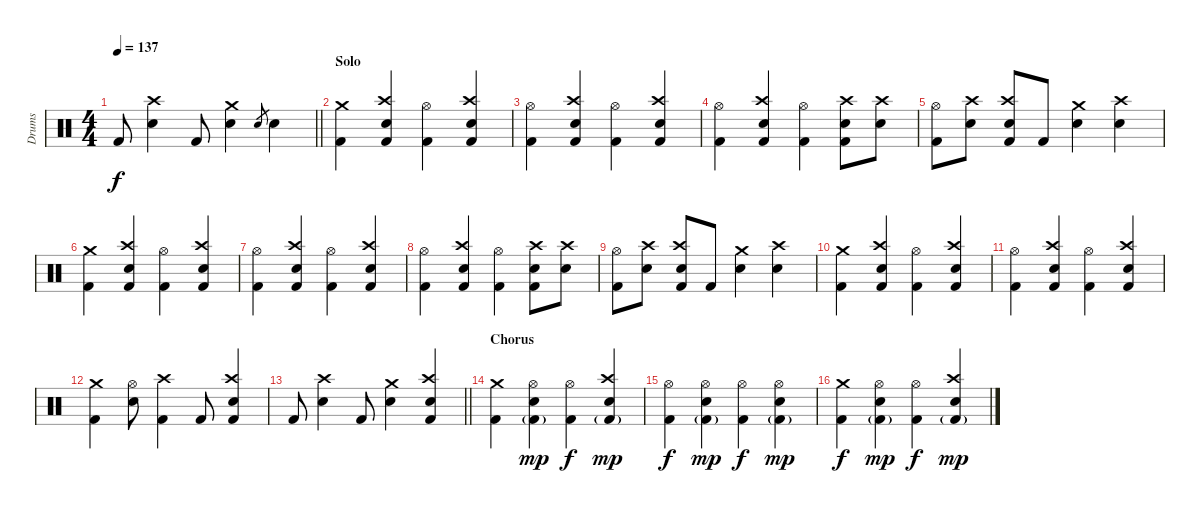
\track ("Drums" "Drums") {instrument percussion}
\staff {score}
\articulation defaults
\ts (4 4)
\tempo 137
\clef neutral
\barLineRight lightlight
\ks c "Kick (hit) 2".8{dy f}
("Crash high (hit)" "Electric Snare (hit)").4 "Kick (hit) 2".8 ("Crash medium (hit)" "Electric Snare (hit)").4 "Electric Snare (hit)".8{gr} "Electric Snare (hit)".4 |
\section ("" "Solo")
("Crash medium (hit)" "Kick (hit) 2").4 ("Crash high (hit)" "Electric Snare (hit)" "Kick (hit) 2").4 ("Hi-Hat (open)" "Kick (hit) 2").4 ("Crash high (hit)" "Electric Snare (hit)" "Kick (hit) 2").4 |
("Hi-Hat (open)" "Kick (hit) 2").4 ("Crash high (hit)" "Electric Snare (hit)" "Kick (hit) 2").4 ("Hi-Hat (open)" "Kick (hit) 2").4 ("Crash high (hit)" "Electric Snare (hit)" "Kick (hit) 2").4 |
("Hi-Hat (open)" "Kick (hit) 2").4 ("Crash high (hit)" "Electric Snare (hit)" "Kick (hit) 2").4 ("Hi-Hat (open)" "Kick (hit) 2").4 ("Crash high (hit)" "Electric Snare (hit)" "Kick (hit) 2").8 ("Crash high (hit)" "Electric Snare (hit)").8 |
("Hi-Hat (open)" "Kick (hit) 2").8 ("Crash high (hit)" "Electric Snare (hit)").8 ("Crash high (hit)" "Electric Snare (hit)" "Kick (hit) 2").8 "Kick (hit) 2".8 ("Crash medium (hit)" "Electric Snare (hit)").4 ("Crash high (hit)" "Electric Snare (hit)").4 |
("Crash medium (hit)" "Kick (hit) 2").4 ("Crash high (hit)" "Electric Snare (hit)" "Kick (hit) 2").4 ("Hi-Hat (open)" "Kick (hit) 2").4 ("Crash high (hit)" "Electric Snare (hit)" "Kick (hit) 2").4 |
("Hi-Hat (open)" "Kick (hit) 2").4 ("Crash high (hit)" "Electric Snare (hit)" "Kick (hit) 2").4 ("Hi-Hat (open)" "Kick (hit) 2").4 ("Crash high (hit)" "Electric Snare (hit)" "Kick (hit) 2").4 |
("Hi-Hat (open)" "Kick (hit) 2").4 ("Crash high (hit)" "Electric Snare (hit)" "Kick (hit) 2").4 ("Hi-Hat (open)" "Kick (hit) 2").4 ("Crash high (hit)" "Electric Snare (hit)" "Kick (hit) 2").8 ("Crash high (hit)" "Electric Snare (hit)").8 |
("Hi-Hat (open)" "Kick (hit) 2").8 ("Crash high (hit)" "Electric Snare (hit)").8 ("Crash high (hit)" "Electric Snare (hit)" "Kick (hit) 2").8 "Kick (hit) 2".8 ("Crash medium (hit)" "Electric Snare (hit)").4 ("Crash high (hit)" "Electric Snare (hit)").4 |
("Crash medium (hit)" "Kick (hit) 2").4 ("Crash high (hit)" "Electric Snare (hit)" "Kick (hit) 2").4 ("Hi-Hat (open)" "Kick (hit) 2").4 ("Crash high (hit)" "Electric Snare (hit)" "Kick (hit) 2").4 |
("Hi-Hat (open)" "Kick (hit) 2").4 ("Crash high (hit)" "Electric Snare (hit)" "Kick (hit) 2").4 ("Hi-Hat (open)" "Kick (hit) 2").4 ("Crash high (hit)" "Electric Snare (hit)" "Kick (hit) 2").4 |
("Crash medium (hit)" "Kick (hit) 2").4 ("Hi-Hat (open)" "Electric Snare (hit)").8 ("Crash high (hit)" "Kick (hit) 2").4 "Kick (hit) 2".8 ("Crash high (hit)" "Electric Snare (hit)" "Kick (hit) 2").4 |
\barLineRight lightlight "Kick (hit) 2".8
("Crash high (hit)" "Electric Snare (hit)").4 "Kick (hit) 2".8 ("Crash medium (hit)" "Electric Snare (hit)").4 ("Crash high (hit)" "Electric Snare (hit)" "Kick (hit) 2").4 |
\section ("" "Chorus")
("Crash medium (hit)" "Kick (hit) 2").4 ("Hi-Hat (open)" "Electric Snare (hit)" "Kick (hit) 2"{g}).4{dy mp} ("Hi-Hat (open)" "Kick (hit) 2").4{dy f} ("Crash high (hit)" "Electric Snare (hit)" "Kick (hit) 2"{g}).4{dy mp} |
("Hi-Hat (open)" "Kick (hit) 2").4{dy f} ("Hi-Hat (open)" "Electric Snare (hit)" "Kick (hit) 2"{g}).4{dy mp} ("Hi-Hat (open)" "Kick (hit) 2").4{dy f} ("Hi-Hat (open)" "Electric Snare (hit)" "Kick (hit) 2"{g}).4{dy mp} |
("Crash medium (hit)" "Kick (hit) 2").4{dy f} ("Hi-Hat (open)" "Electric Snare (hit)" "Kick (hit) 2"{g}).4{dy mp} ("Hi-Hat (open)" "Kick (hit) 2").4{dy f} ("Crash high (hit)" "Electric Snare (hit)" "Kick (hit) 2"{g}).4{dy mp}
